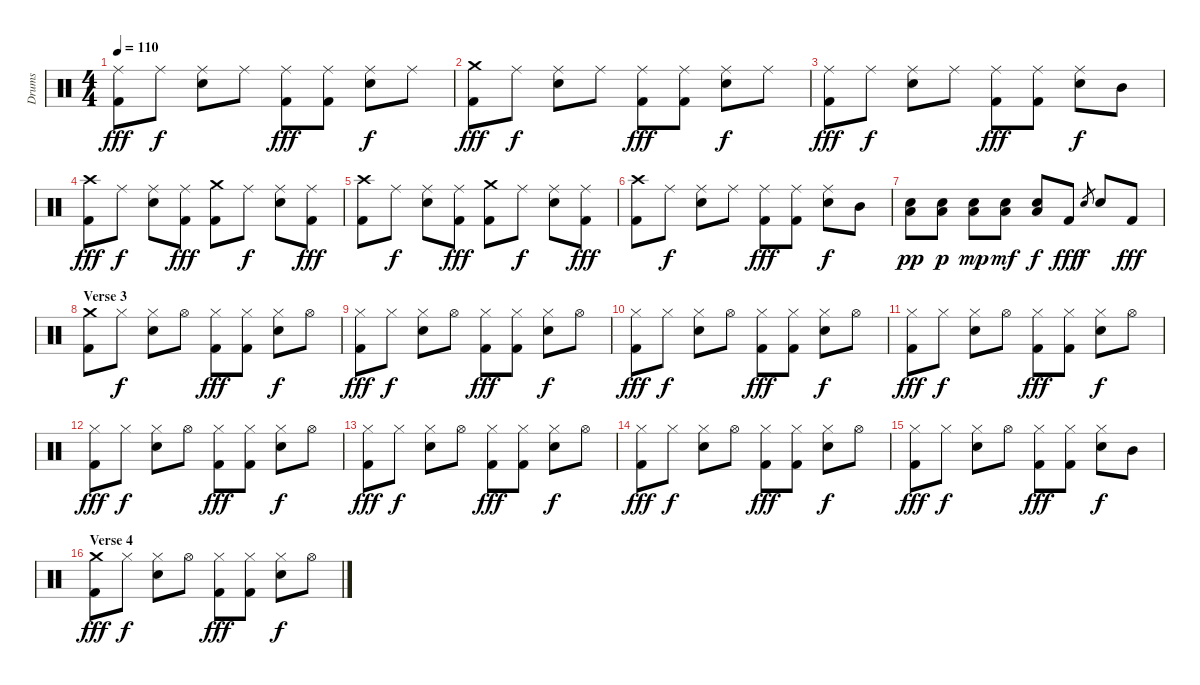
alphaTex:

\track ("Drums" "Drums") {instrument percussion}
\staff {score}
\articulation defaults
\ts (4 4)
\tempo 110
\clef neutral
\ks c
("Ride (middle)" "Kick (hit) 2").8{dy fff} "Ride (middle)".8{dy f} ("Ride (middle)" "Snare (hit) 2").8 "Ride (middle)".8 ("Ride (middle)" "Kick (hit) 2").8{dy fff} ("Ride (middle)" "Kick (hit) 2").8 ("Ride (middle)" "Snare (hit) 2").8{dy f} "Ride (middle)".8 |
("Crash medium (hit)" "Kick (hit) 2").8{dy fff} "Ride (middle)".8{dy f} ("Ride (middle)" "Snare (hit) 2").8 "Ride (middle)".8 ("Ride (middle)" "Kick (hit) 2").8{dy fff} ("Ride (middle)" "Kick (hit) 2").8 ("Ride (middle)" "Snare (hit) 2").8{dy f} "Ride (middle)".8 |
("Ride (middle)" "Kick (hit) 2").8{dy fff} "Ride (middle)".8{dy f} ("Ride (middle)" "Snare (hit) 2").8 "Ride (middle)".8 ("Ride (middle)" "Kick (hit) 2").8{dy fff} ("Ride (middle)" "Kick (hit) 2").8 ("Ride (middle)" "Snare (hit) 2").8{dy f} "Mid Tom (hit)".8 |
("Crash high (hit)" "Kick (hit) 2").8{dy fff} "Ride (middle)".8{dy f} ("Ride (middle)" "Snare (hit) 2").8 ("Ride (middle)" "Kick (hit) 2").8{dy fff} ("Crash medium (hit)" "Kick (hit) 2").8 "Ride (middle)".8{dy f} ("Ride (middle)" "Snare (hit) 2").8 ("Ride (middle)" "Kick (hit) 2").8{dy fff} |
("Crash high (hit)" "Kick (hit) 2").8 "Ride (middle)".8{dy f} ("Ride (middle)" "Snare (hit) 2").8 ("Ride (middle)" "Kick (hit) 2").8{dy fff} ("Crash medium (hit)" "Kick (hit) 2").8 "Ride (middle)".8{dy f} ("Ride (middle)" "Snare (hit) 2").8 ("Ride (middle)" "Kick (hit) 2").8{dy fff} |
("Crash high (hit)" "Kick (hit) 2").8 "Ride (middle)".8{dy f} ("Ride (middle)" "Snare (hit) 2").8 "Ride (middle)".8 ("Ride (middle)" "Kick (hit) 2").8{dy fff} ("Ride (middle)" "Kick (hit) 2").8 ("Ride (middle)" "Snare (hit) 2").8{dy f} "Mid Tom (hit)".8 |
("Snare (hit) 2" "Low Floor Tom (hit)").8{dy pp} ("Snare (hit) 2" "Low Floor Tom (hit)").8{dy p} ("Snare (hit) 2" "Low Floor Tom (hit)").8{dy mp} ("Snare (hit) 2" "Low Floor Tom (hit)").8{dy mf} ("Snare (hit) 2" "Low Floor Tom (hit)").8{dy f} "Kick (hit) 2".8{dy fff} "Snare (hit) 2".8{gr dy f} "Snare (hit) 2".8 "Kick (hit) 2".8{dy fff} |
\section ("" "Verse 3")
("Crash medium (hit)" "Kick (hit) 2").8 "Hi-Hat (closed)".8{dy f} ("Hi-Hat (closed)" "Snare (hit) 2").8 "Hi-Hat (open)".8 ("Hi-Hat (closed)" "Kick (hit) 2").8{dy fff} ("Hi-Hat (closed)" "Kick (hit) 2").8 ("Hi-Hat (closed)" "Snare (hit) 2").8{dy f} "Hi-Hat (open)".8 |
("Hi-Hat (closed)" "Kick (hit) 2").8{dy fff} "Hi-Hat (closed)".8{dy f} ("Hi-Hat (closed)" "Snare (hit) 2").8 "Hi-Hat (open)".8 ("Hi-Hat (closed)" "Kick (hit) 2").8{dy fff} ("Hi-Hat (closed)" "Kick (hit) 2").8 ("Hi-Hat (closed)" "Snare (hit) 2").8{dy f} "Hi-Hat (open)".8 |
("Hi-Hat (closed)" "Kick (hit) 2").8{dy fff} "Hi-Hat (closed)".8{dy f} ("Hi-Hat (closed)" "Snare (hit) 2").8 "Hi-Hat (open)".8 ("Hi-Hat (closed)" "Kick (hit) 2").8{dy fff} ("Hi-Hat (closed)" "Kick (hit) 2").8 ("Hi-Hat (closed)" "Snare (hit) 2").8{dy f} "Hi-Hat (open)".8 |
("Hi-Hat (closed)" "Kick (hit) 2").8{dy fff} "Hi-Hat (closed)".8{dy f} ("Hi-Hat (closed)" "Snare (hit) 2").8 "Hi-Hat (open)".8 ("Hi-Hat (closed)" "Kick (hit) 2").8{dy fff} ("Hi-Hat (closed)" "Kick (hit) 2").8 ("Hi-Hat (closed)" "Snare (hit) 2").8{dy f} "Hi-Hat (open)".8 |
("Hi-Hat (closed)" "Kick (hit) 2").8{dy fff} "Hi-Hat (closed)".8{dy f} ("Hi-Hat (closed)" "Snare (hit) 2").8 "Hi-Hat (open)".8 ("Hi-Hat (closed)" "Kick (hit) 2").8{dy fff} ("Hi-Hat (closed)" "Kick (hit) 2").8 ("Hi-Hat (closed)" "Snare (hit) 2").8{dy f} "Hi-Hat (open)".8 |
("Hi-Hat (closed)" "Kick (hit) 2").8{dy fff} "Hi-Hat (closed)".8{dy f} ("Hi-Hat (closed)" "Snare (hit) 2").8 "Hi-Hat (open)".8 ("Hi-Hat (closed)" "Kick (hit) 2").8{dy fff} ("Hi-Hat (closed)" "Kick (hit) 2").8 ("Hi-Hat (closed)" "Snare (hit) 2").8{dy f} "Hi-Hat (open)".8 |
("Hi-Hat (closed)" "Kick (hit) 2").8{dy fff} "Hi-Hat (closed)".8{dy f} ("Hi-Hat (closed)" "Snare (hit) 2").8 "Hi-Hat (open)".8 ("Hi-Hat (closed)" "Kick (hit) 2").8{dy fff} ("Hi-Hat (closed)" "Kick (hit) 2").8 ("Hi-Hat (closed)" "Snare (hit) 2").8{dy f} "Hi-Hat (open)".8 |
("Hi-Hat (closed)" "Kick (hit) 2").8{dy fff} "Hi-Hat (closed)".8{dy f} ("Hi-Hat (closed)" "Snare (hit) 2").8 "Hi-Hat (open)".8 ("Hi-Hat (closed)" "Kick (hit) 2").8{dy fff} ("Hi-Hat (closed)" "Kick (hit) 2").8 ("Hi-Hat (closed)" "Snare (hit) 2").8{dy f} "Mid Tom (hit)".8 |
\section ("" "Verse 4")
("Crash medium (hit)" "Kick (hit) 2").8{dy fff} "Hi-Hat (closed)".8{dy f} ("Hi-Hat (closed)" "Snare (hit) 2").8 "Hi-Hat (open)".8 ("Hi-Hat (closed)" "Kick (hit) 2").8{dy fff} ("Hi-Hat (closed)" "Kick (hit) 2").8 ("Hi-Hat (closed)" "Snare (hit) 2").8{dy f} "Hi-Hat (open)".8
